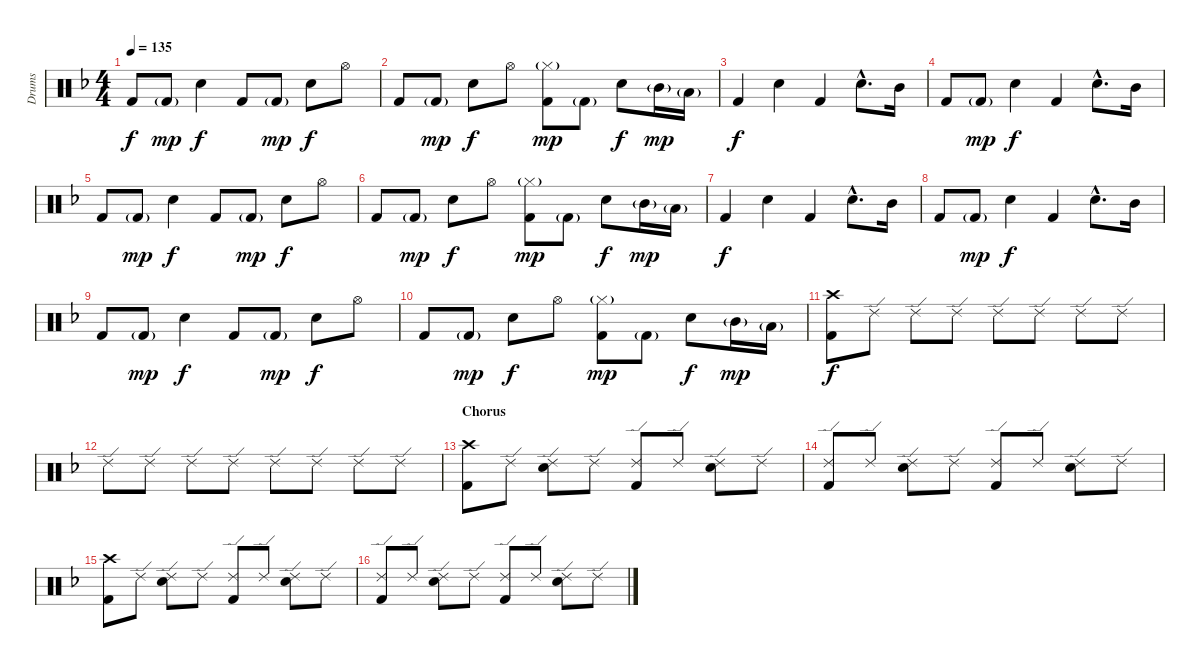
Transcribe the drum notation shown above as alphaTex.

\track ("Drums" "Drums") {instrument percussion}
\staff {score}
\articulation defaults
\ts (4 4)
\tempo 135
\clef neutral
\ks f "Kick (hit) 2".8{dy f} "Kick (hit) 2"{g}.8{dy mp} "Electric Snare (hit)".4{dy f} "Kick (hit) 2".8 "Kick (hit) 2"{g}.8{dy mp} "Electric Snare (hit)".8{dy f} "Hi-Hat (open)".8
|
"Kick (hit) 2".8 "Kick (hit) 2"{g}.8{dy mp} "Electric Snare (hit)".8{dy f} "Hi-Hat (open)".8 ("Hi-Hat (closed)"{g} "Kick (hit) 2").8{dy mp} "Kick (hit) 2"{g}.8 "Electric Snare (hit)".8{dy f} "Mid Tom (hit)"{g}.16{dy mp} "Low Tom (hit)"{g}.16 |
"Kick (hit) 2".4{dy f} "Electric Snare (hit)".4 "Kick (hit) 2".4 "Electric Snare (hit)"{hac}.8{d} "Mid Tom (hit)".16 |
"Kick (hit) 2".8 "Kick (hit) 2"{g}.8{dy mp} "Electric Snare (hit)".4{dy f} "Kick (hit) 2".4 "Electric Snare (hit)"{hac}.8{d} "Mid Tom (hit)".16 |
"Kick (hit) 2".8 "Kick (hit) 2"{g}.8{dy mp} "Electric Snare (hit)".4{dy f} "Kick (hit) 2".8 "Kick (hit) 2"{g}.8{dy mp} "Electric Snare (hit)".8{dy f} "Hi-Hat (open)".8 |
"Kick (hit) 2".8 "Kick (hit) 2"{g}.8{dy mp} "Electric Snare (hit)".8{dy f} "Hi-Hat (open)".8 ("Hi-Hat (closed)"{g} "Kick (hit) 2").8{dy mp} "Kick (hit) 2"{g}.8 "Electric Snare (hit)".8{dy f} "Mid Tom (hit)"{g}.16{dy mp} "Low Tom (hit)"{g}.16 |
"Kick (hit) 2".4{dy f} "Electric Snare (hit)".4 "Kick (hit) 2".4 "Electric Snare (hit)"{hac}.8{d} "Mid Tom (hit)".16 |
"Kick (hit) 2".8 "Kick (hit) 2"{g}.8{dy mp} "Electric Snare (hit)".4{dy f} "Kick (hit) 2".4 "Electric Snare (hit)"{hac}.8{d} "Mid Tom (hit)".16 |
"Kick (hit) 2".8 "Kick (hit) 2"{g}.8{dy mp} "Electric Snare (hit)".4{dy f} "Kick (hit) 2".8 "Kick (hit) 2"{g}.8{dy mp} "Electric Snare (hit)".8{dy f} "Hi-Hat (open)".8 |
"Kick (hit) 2".8 "Kick (hit) 2"{g}.8{dy mp} "Electric Snare (hit)".8{dy f} "Hi-Hat (open)".8 ("Hi-Hat (closed)"{g} "Kick (hit) 2").8{dy mp} "Kick (hit) 2"{g}.8 "Electric Snare (hit)".8{dy f} "Mid Tom (hit)"{g}.16{dy mp} "Low Tom (hit)"{g}.16 |
("Crash high (hit)" "Kick (hit) 2").8{dy f} "Ride (edge) 2".8 "Ride (edge) 2".8 "Ride (edge) 2".8 "Ride (edge) 2".8 "Ride (edge) 2".8 "Ride (edge) 2".8 "Ride (edge) 2".8 |
"Ride (edge) 2".8 "Ride (edge) 2".8 "Ride (edge) 2".8 "Ride (edge) 2".8 "Ride (edge) 2".8 "Ride (edge) 2".8 "Ride (edge) 2".8 "Ride (edge) 2".8 |
\section ("" "Chorus")
("Crash high (hit)" "Kick (hit) 2").8 "Ride (edge) 2".8 ("Ride (edge) 2" "Electric Snare (hit)").8 "Ride (edge) 2".8 ("Ride (edge) 2" "Kick (hit) 2").8 "Ride (edge) 2".8 ("Ride (edge) 2" "Electric Snare (hit)").8 "Ride (edge) 2".8 |
("Ride (edge) 2" "Kick (hit) 2").8 "Ride (edge) 2".8 ("Ride (edge) 2" "Electric Snare (hit)").8 "Ride (edge) 2".8 ("Ride (edge) 2" "Kick (hit) 2").8 "Ride (edge) 2".8 ("Ride (edge) 2" "Electric Snare (hit)").8 "Ride (edge) 2".8 |
("Crash high (hit)" "Kick (hit) 2").8 "Ride (edge) 2".8 ("Ride (edge) 2" "Electric Snare (hit)").8 "Ride (edge) 2".8 ("Ride (edge) 2" "Kick (hit) 2").8 "Ride (edge) 2".8 ("Ride (edge) 2" "Electric Snare (hit)").8 "Ride (edge) 2".8 |
("Ride (edge) 2" "Kick (hit) 2").8 "Ride (edge) 2".8 ("Ride (edge) 2" "Electric Snare (hit)").8 "Ride (edge) 2".8 ("Ride (edge) 2" "Kick (hit) 2").8 "Ride (edge) 2".8 ("Ride (edge) 2" "Electric Snare (hit)").8 "Ride (edge) 2".8
